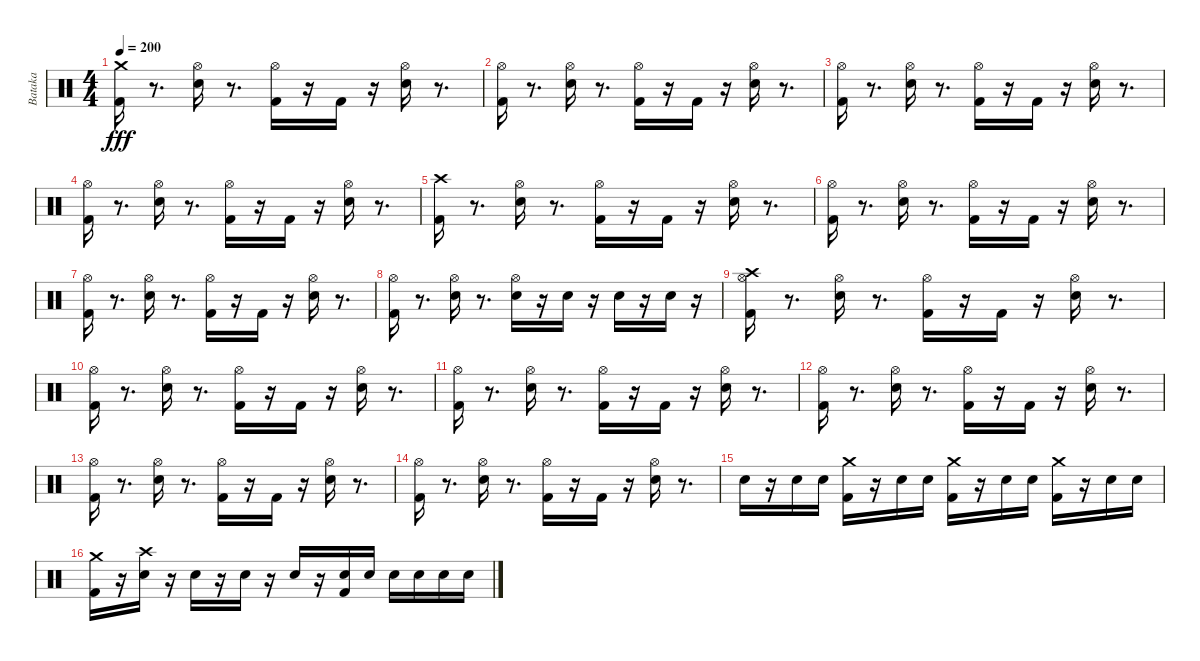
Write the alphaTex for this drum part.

\track ("Bataka" "Bataka") {instrument percussion}
\staff {score}
\articulation defaults
\ts (4 4)
\tempo 200
\clef neutral
\ks c
("Kick (hit) 2" "Crash medium (hit)").16{dy fff} r.8{d} ("Electric Snare (hit)" "Hi-Hat (open)").16 r.8{d} ("Kick (hit) 2" "Hi-Hat (open)").16 r.16 "Kick (hit) 2".16 r.16 ("Electric Snare (hit)" "Hi-Hat (open)").16 r.8{d} |
("Kick (hit) 2" "Hi-Hat (open)").16 r.8{d} ("Electric Snare (hit)" "Hi-Hat (open)").16 r.8{d} ("Kick (hit) 2" "Hi-Hat (open)").16 r.16 "Kick (hit) 2".16 r.16 ("Electric Snare (hit)" "Hi-Hat (open)").16 r.8{d} |
("Kick (hit) 2" "Hi-Hat (open)").16 r.8{d} ("Electric Snare (hit)" "Hi-Hat (open)").16 r.8{d} ("Kick (hit) 2" "Hi-Hat (open)").16 r.16 "Kick (hit) 2".16 r.16 ("Electric Snare (hit)" "Hi-Hat (open)").16 r.8{d} |
("Kick (hit) 2" "Hi-Hat (open)").16 r.8{d} ("Electric Snare (hit)" "Hi-Hat (open)").16 r.8{d} ("Kick (hit) 2" "Hi-Hat (open)").16 r.16 "Kick (hit) 2".16 r.16 ("Electric Snare (hit)" "Hi-Hat (open)").16 r.8{d} |
("Kick (hit) 2" "Crash high (hit)").16 r.8{d} ("Electric Snare (hit)" "Hi-Hat (open)").16 r.8{d} ("Kick (hit) 2" "Hi-Hat (open)").16 r.16 "Kick (hit) 2".16 r.16 ("Electric Snare (hit)" "Hi-Hat (open)").16 r.8{d} |
("Kick (hit) 2" "Hi-Hat (open)").16 r.8{d} ("Electric Snare (hit)" "Hi-Hat (open)").16 r.8{d} ("Kick (hit) 2" "Hi-Hat (open)").16 r.16 "Kick (hit) 2".16 r.16 ("Electric Snare (hit)" "Hi-Hat (open)").16 r.8{d} |
("Kick (hit) 2" "Hi-Hat (open)").16 r.8{d} ("Electric Snare (hit)" "Hi-Hat (open)").16 r.8{d} ("Kick (hit) 2" "Hi-Hat (open)").16 r.16 "Kick (hit) 2".16 r.16 ("Electric Snare (hit)" "Hi-Hat (open)").16 r.8{d} |
("Kick (hit) 2" "Hi-Hat (open)").16 r.8{d} ("Electric Snare (hit)" "Hi-Hat (open)").16 r.8{d} ("Hi-Hat (open)" "Electric Snare (hit)").16 r.16 "Electric Snare (hit)".16 r.16 "Electric Snare (hit)".16 r.16 "Electric Snare (hit)".16 r.16 |
("Kick (hit) 2" "Hi-Hat (open)" "Crash high (hit)").16 r.8{d} ("Electric Snare (hit)" "Hi-Hat (open)").16 r.8{d} ("Kick (hit) 2" "Hi-Hat (open)").16 r.16 "Kick (hit) 2".16 r.16 ("Electric Snare (hit)" "Hi-Hat (open)").16 r.8{d} |
("Kick (hit) 2" "Hi-Hat (open)").16 r.8{d} ("Electric Snare (hit)" "Hi-Hat (open)").16 r.8{d} ("Kick (hit) 2" "Hi-Hat (open)").16 r.16 "Kick (hit) 2".16 r.16 ("Electric Snare (hit)" "Hi-Hat (open)").16 r.8{d} |
("Kick (hit) 2" "Hi-Hat (open)").16 r.8{d} ("Electric Snare (hit)" "Hi-Hat (open)").16 r.8{d} ("Kick (hit) 2" "Hi-Hat (open)").16 r.16 "Kick (hit) 2".16 r.16 ("Electric Snare (hit)" "Hi-Hat (open)").16 r.8{d} |
("Kick (hit) 2" "Hi-Hat (open)").16 r.8{d} ("Electric Snare (hit)" "Hi-Hat (open)").16 r.8{d} ("Kick (hit) 2" "Hi-Hat (open)").16 r.16 "Kick (hit) 2".16 r.16 ("Electric Snare (hit)" "Hi-Hat (open)").16 r.8{d} |
("Kick (hit) 2" "Hi-Hat (open)").16 r.8{d} ("Electric Snare (hit)" "Hi-Hat (open)").16 r.8{d} ("Kick (hit) 2" "Hi-Hat (open)").16 r.16 "Kick (hit) 2".16 r.16 ("Electric Snare (hit)" "Hi-Hat (open)").16 r.8{d} |
("Kick (hit) 2" "Hi-Hat (open)").16 r.8{d} ("Electric Snare (hit)" "Hi-Hat (open)").16 r.8{d} ("Kick (hit) 2" "Hi-Hat (open)").16 r.16 "Kick (hit) 2".16 r.16 ("Electric Snare (hit)" "Hi-Hat (open)").16 r.8{d} |
"Electric Snare (hit)".16 r.16 "Electric Snare (hit)".16 "Electric Snare (hit)".16 ("Kick (hit) 2" "Crash medium (hit)").16 r.16 "Electric Snare (hit)".16 "Electric Snare (hit)".16 ("Kick (hit) 2" "Crash medium (hit)").16 r.16 "Electric Snare (hit)".16 "Electric Snare (hit)".16 ("Kick (hit) 2" "Crash medium (hit)").16 r.16 "Electric Snare (hit)".16 "Electric Snare (hit)".16 |
("Kick (hit) 2" "Crash medium (hit)").16 r.16 ("Electric Snare (hit)" "Crash high (hit)").16 r.16 "Electric Snare (hit)".16 r.16 "Electric Snare (hit)".16 r.16 "Electric Snare (hit)".16 r.16 ("Electric Snare (hit)" "Kick (hit) 2").16 "Electric Snare (hit)".16 "Electric Snare (hit)".16 "Electric Snare (hit)".16 "Electric Snare (hit)".16 "Electric Snare (hit)".16
